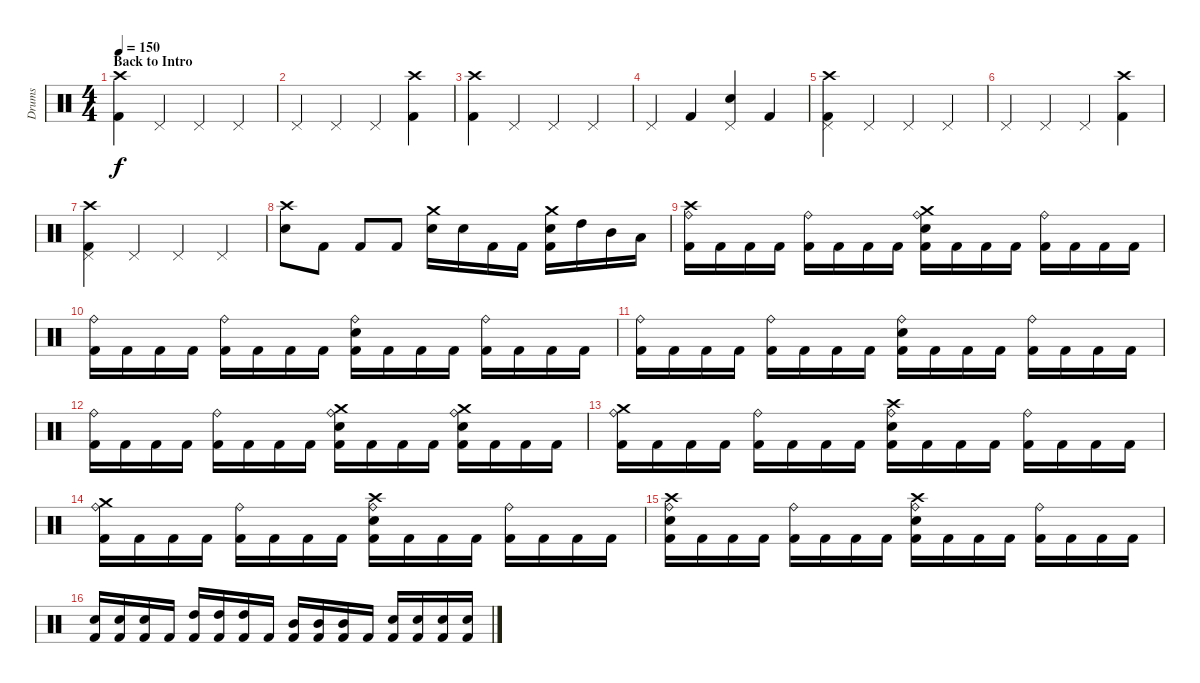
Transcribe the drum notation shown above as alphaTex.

\track ("Drums" "Drums") {instrument percussion}
\staff {score}
\articulation defaults
\ts (4 4)
\section ("" "Back to Intro")
\tempo 150
\clef neutral
\ks c
("Crash high (hit)" "Kick (hit) 2").4{dy f} "Pedal Hi-Hat (hit)".4 "Pedal Hi-Hat (hit)".4 "Pedal Hi-Hat (hit)".4 |
"Pedal Hi-Hat (hit)".4 "Pedal Hi-Hat (hit)".4 "Pedal Hi-Hat (hit)".4 ("Crash high (hit)" "Kick (hit) 2").4 |
("Crash high (hit)" "Kick (hit) 2").4 "Pedal Hi-Hat (hit)".4 "Pedal Hi-Hat (hit)".4 "Pedal Hi-Hat (hit)".4 |
"Pedal Hi-Hat (hit)".4 "Kick (hit) 2".4 ("Pedal Hi-Hat (hit)" "Electric Snare (hit)").4 "Kick (hit) 2".4 |
("Crash high (hit)" "Pedal Hi-Hat (hit)" "Kick (hit) 2").4 "Pedal Hi-Hat (hit)".4 "Pedal Hi-Hat (hit)".4 "Pedal Hi-Hat (hit)".4 |
"Pedal Hi-Hat (hit)".4 "Pedal Hi-Hat (hit)".4 "Pedal Hi-Hat (hit)".4 ("Crash high (hit)" "Kick (hit) 2").4 |
("Crash high (hit)" "Pedal Hi-Hat (hit)" "Kick (hit) 2").4 "Pedal Hi-Hat (hit)".4 "Pedal Hi-Hat (hit)".4 "Pedal Hi-Hat (hit)".4 |
("Crash high (hit)" "Electric Snare (hit)").8 "Kick (hit) 2".8 "Kick (hit) 2".8 "Kick (hit) 2".8 ("Crash medium (hit)" "Electric Snare (hit)").16 "Electric Snare (hit)".16 "Kick (hit) 2".16 "Kick (hit) 2".16 ("Crash medium (hit)" "Electric Snare (hit)" "Kick (hit) 2").16 "High Tom (hit)".16 "Mid Tom (hit)".16 "Low Tom (hit)".16 |
("Crash high (hit)" "Ride (bell)" "Kick (hit) 2").16 "Kick (hit) 2".16 "Kick (hit) 2".16 "Kick (hit) 2".16 ("Ride (bell)" "Kick (hit) 2").16 "Kick (hit) 2".16 "Kick (hit) 2".16 "Kick (hit) 2".16 ("Crash medium (hit)" "Ride (bell)" "Electric Snare (hit)" "Kick (hit) 2").16 "Kick (hit) 2".16 "Kick (hit) 2".16 "Kick (hit) 2".16 ("Ride (bell)" "Kick (hit) 2").16 "Kick (hit) 2".16 "Kick (hit) 2".16 "Kick (hit) 2".16 |
("Ride (bell)" "Kick (hit) 2").16 "Kick (hit) 2".16 "Kick (hit) 2".16 "Kick (hit) 2".16 ("Ride (bell)" "Kick (hit) 2").16 "Kick (hit) 2".16 "Kick (hit) 2".16 "Kick (hit) 2".16 ("Ride (bell)" "Electric Snare (hit)" "Kick (hit) 2").16 "Kick (hit) 2".16 "Kick (hit) 2".16 "Kick (hit) 2".16 ("Ride (bell)" "Kick (hit) 2").16 "Kick (hit) 2".16 "Kick (hit) 2".16 "Kick (hit) 2".16 |
("Ride (bell)" "Kick (hit) 2").16 "Kick (hit) 2".16 "Kick (hit) 2".16 "Kick (hit) 2".16 ("Ride (bell)" "Kick (hit) 2").16 "Kick (hit) 2".16 "Kick (hit) 2".16 "Kick (hit) 2".16 ("Ride (bell)" "Electric Snare (hit)" "Kick (hit) 2").16 "Kick (hit) 2".16 "Kick (hit) 2".16 "Kick (hit) 2".16 ("Ride (bell)" "Kick (hit) 2").16 "Kick (hit) 2".16 "Kick (hit) 2".16 "Kick (hit) 2".16 |
("Ride (bell)" "Kick (hit) 2").16 "Kick (hit) 2".16 "Kick (hit) 2".16 "Kick (hit) 2".16 ("Ride (bell)" "Kick (hit) 2").16 "Kick (hit) 2".16 "Kick (hit) 2".16 "Kick (hit) 2".16 ("Crash medium (hit)" "Ride (bell)" "Electric Snare (hit)" "Kick (hit) 2").16 "Kick (hit) 2".16 "Kick (hit) 2".16 "Kick (hit) 2".16 ("Crash medium (hit)" "Ride (bell)" "Electric Snare (hit)" "Kick (hit) 2").16 "Kick (hit) 2".16 "Kick (hit) 2".16 "Kick (hit) 2".16 |
("Crash medium (hit)" "Ride (bell)" "Kick (hit) 2").16 "Kick (hit) 2".16 "Kick (hit) 2".16 "Kick (hit) 2".16 ("Ride (bell)" "Kick (hit) 2").16 "Kick (hit) 2".16 "Kick (hit) 2".16 "Kick (hit) 2".16 ("Crash high (hit)" "Ride (bell)" "Electric Snare (hit)" "Kick (hit) 2").16 "Kick (hit) 2".16 "Kick (hit) 2".16 "Kick (hit) 2".16 ("Ride (bell)" "Kick (hit) 2").16 "Kick (hit) 2".16 "Kick (hit) 2".16 "Kick (hit) 2".16 |
("Crash medium (hit)" "Ride (bell)" "Kick (hit) 2").16 "Kick (hit) 2".16 "Kick (hit) 2".16 "Kick (hit) 2".16 ("Ride (bell)" "Kick (hit) 2").16 "Kick (hit) 2".16 "Kick (hit) 2".16 "Kick (hit) 2".16 ("Crash high (hit)" "Ride (bell)" "Electric Snare (hit)" "Kick (hit) 2").16 "Kick (hit) 2".16 "Kick (hit) 2".16 "Kick (hit) 2".16 ("Ride (bell)" "Kick (hit) 2").16 "Kick (hit) 2".16 "Kick (hit) 2".16 "Kick (hit) 2".16 |
("Crash high (hit)" "Ride (bell)" "Electric Snare (hit)" "Kick (hit) 2").16 "Kick (hit) 2".16 "Kick (hit) 2".16 "Kick (hit) 2".16 ("Ride (bell)" "Kick (hit) 2").16 "Kick (hit) 2".16 "Kick (hit) 2".16 "Kick (hit) 2".16 ("Crash high (hit)" "Ride (bell)" "Electric Snare (hit)" "Kick (hit) 2").16 "Kick (hit) 2".16 "Kick (hit) 2".16 "Kick (hit) 2".16 ("Ride (bell)" "Kick (hit) 2").16 "Kick (hit) 2".16 "Kick (hit) 2".16 "Kick (hit) 2".16 |
("Electric Snare (hit)" "Kick (hit) 2").16 ("Electric Snare (hit)" "Kick (hit) 2").16 ("Electric Snare (hit)" "Kick (hit) 2").16 "Kick (hit) 2".16 ("High Tom (hit)" "Kick (hit) 2").16 ("High Tom (hit)" "Kick (hit) 2").16 ("High Tom (hit)" "Kick (hit) 2").16 "Kick (hit) 2".16 ("Mid Tom (hit)" "Kick (hit) 2").16 ("Mid Tom (hit)" "Kick (hit) 2").16 ("Mid Tom (hit)" "Kick (hit) 2").16 "Kick (hit) 2".16 ("Electric Snare (hit)" "Kick (hit) 2").16 ("Electric Snare (hit)" "Kick (hit) 2").16 ("Electric Snare (hit)" "Kick (hit) 2").16 ("Electric Snare (hit)" "Kick (hit) 2").16
